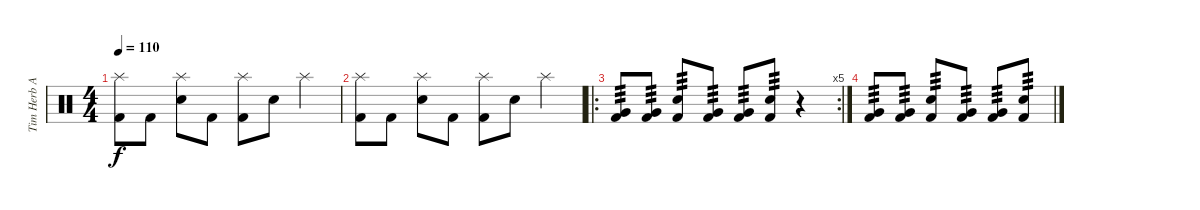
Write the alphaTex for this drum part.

\track ("Tim Herb Alexander" "Tim Herb A") {instrument percussion}
\staff {score}
\articulation defaults
\ts (4 4)
\tempo 110
\clef neutral
\ks c
("Splash (hit)" "Kick (hit) 2").8{dy f} "Kick (hit) 2".8 ("Splash (hit)" "Snare (hit) 2").8 "Kick (hit) 2".8 ("Splash (hit)" "Kick (hit) 2").8 "Snare (hit) 2".8 "Splash (hit)".4 |
("Splash (hit)" "Kick (hit) 2").8 "Kick (hit) 2".8 ("Splash (hit)" "Snare (hit) 2").8 "Kick (hit) 2".8 ("Splash (hit)" "Kick (hit) 2").8 "Snare (hit) 2".8 "Splash (hit)".4 |
\ro
\rc 5
("Very Low Tom (hit)" "Kick (hit) 2").8{tp 3} ("Very Low Tom (hit)" "Kick (hit) 2").8{tp 3} ("Snare (hit) 2" "Kick (hit) 2").8{tp 3} ("Very Low Tom (hit)" "Kick (hit) 2").8{tp 3} ("Very Low Tom (hit)" "Kick (hit) 2").8{tp 3} ("Snare (hit) 2" "Kick (hit) 2").8{tp 3} r.4 |
("Very Low Tom (hit)" "Kick (hit) 2").8{tp 3} ("Very Low Tom (hit)" "Kick (hit) 2").8{tp 3} ("Snare (hit) 2" "Kick (hit) 2").8{tp 3} ("Very Low Tom (hit)" "Kick (hit) 2").8{tp 3} ("Very Low Tom (hit)" "Kick (hit) 2").8{tp 3} ("Snare (hit) 2" "Kick (hit) 2").8{tp 3}
